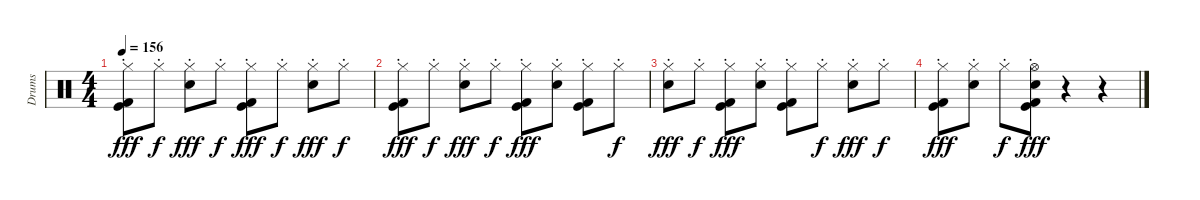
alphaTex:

\track ("Drums" "Drums") {instrument percussion}
\staff {score}
\articulation defaults
\ts (4 4)
\tempo 156
\clef neutral
\ks c
("Hi-Hat (closed)"{st} "Kick (hit) 2" "Kick (hit)").8{dy fff} "Hi-Hat (closed)"{st}.8{dy f} ("Hi-Hat (closed)"{st} "Electric Snare (hit)").8{dy fff} "Hi-Hat (closed)"{st}.8{dy f} ("Hi-Hat (closed)"{st} "Kick (hit) 2" "Kick (hit)").8{dy fff} "Hi-Hat (closed)"{st}.8{dy f} ("Hi-Hat (closed)"{st} "Electric Snare (hit)").8{dy fff} "Hi-Hat (closed)"{st}.8{dy f} |
("Hi-Hat (closed)"{st} "Kick (hit) 2" "Kick (hit)").8{dy fff} "Hi-Hat (closed)"{st}.8{dy f} ("Hi-Hat (closed)"{st} "Electric Snare (hit)").8{dy fff} "Hi-Hat (closed)"{st}.8{dy f} ("Hi-Hat (closed)"{st} "Kick (hit) 2" "Kick (hit)").8{dy fff} ("Hi-Hat (closed)"{st} "Electric Snare (hit)").8 ("Hi-Hat (closed)"{st} "Kick (hit) 2" "Kick (hit)").8 "Hi-Hat (closed)"{st}.8{dy f} |
("Hi-Hat (closed)"{st} "Electric Snare (hit)").8{dy fff} "Hi-Hat (closed)"{st}.8{dy f} ("Hi-Hat (closed)"{st} "Kick (hit)" "Kick (hit) 2").8{dy fff} ("Hi-Hat (closed)"{st} "Electric Snare (hit)").8 ("Hi-Hat (closed)"{st} "Kick (hit) 2" "Kick (hit)").8 "Hi-Hat (closed)"{st}.8{dy f} ("Hi-Hat (closed)"{st} "Electric Snare (hit)").8{dy fff} "Hi-Hat (closed)"{st}.8{dy f} |
("Hi-Hat (closed)"{st} "Kick (hit) 2" "Kick (hit)").8{dy fff} ("Hi-Hat (closed)"{st} "Electric Snare (hit)").8 "Hi-Hat (closed)"{st}.8{dy f} ("Hi-Hat (open)"{st} "Electric Snare (hit)" "Kick (hit) 2" "Kick (hit)").8{dy fff} r.4 r.4
